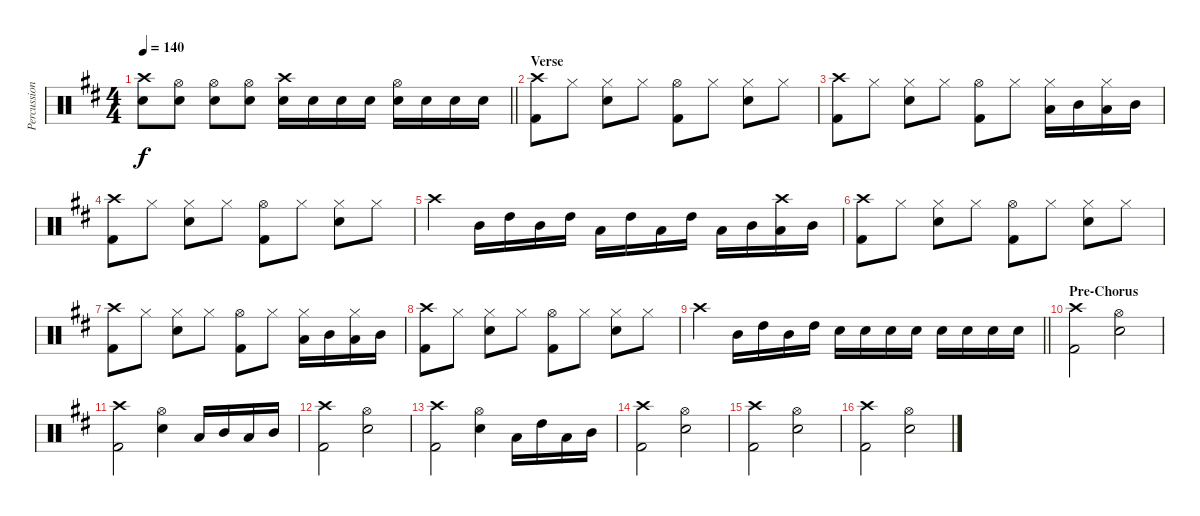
\track ("Percussion" "Percussion") {instrument percussion}
\staff {score}
\articulation defaults
\ts (4 4)
\tempo 140
\clef neutral
\barLineRight lightlight
\ks d
("Crash high (hit)" "Snare (hit) 2").8{dy f} ("Hi-Hat (open)" "Snare (hit) 2").8 ("Hi-Hat (open)" "Snare (hit) 2").8 ("Hi-Hat (open)" "Snare (hit) 2").8 ("Crash high (hit)" "Snare (hit) 2").16 "Snare (hit) 2".16 "Snare (hit) 2".16 "Snare (hit) 2".16 ("Hi-Hat (open)" "Snare (hit) 2").16 "Snare (hit) 2".16 "Snare (hit) 2".16 "Snare (hit) 2".16 |
\section ("" "Verse")
\ks bminor
("Crash high (hit)" "Kick (hit) 2").8 "Hi-Hat (closed)".8 ("Hi-Hat (closed)" "Snare (hit) 2").8 "Hi-Hat (closed)".8 ("Hi-Hat (open)" "Kick (hit) 2").8 "Hi-Hat (closed)".8 ("Hi-Hat (closed)" "Snare (hit) 2").8 "Hi-Hat (closed)".8 |
("Crash high (hit)" "Kick (hit) 2").8 "Hi-Hat (closed)".8 ("Hi-Hat (closed)" "Snare (hit) 2").8 "Hi-Hat (closed)".8 ("Hi-Hat (open)" "Kick (hit) 2").8 "Hi-Hat (closed)".8 ("Hi-Hat (closed)" "Low Tom (hit)").16 "Mid Tom (hit)".16 ("Hi-Hat (closed)" "Low Tom (hit)").16 "Mid Tom (hit)".16 |
\ks d
("Crash high (hit)" "Kick (hit) 2").8 "Hi-Hat (closed)".8 ("Hi-Hat (closed)" "Snare (hit) 2").8 "Hi-Hat (closed)".8 ("Hi-Hat (open)" "Kick (hit) 2").8 "Hi-Hat (closed)".8 ("Hi-Hat (closed)" "Snare (hit) 2").8 "Hi-Hat (closed)".8 |
"Crash high (hit)".4 "Mid Tom (hit)".16 "High Tom (hit)".16 "Mid Tom (hit)".16 "High Tom (hit)".16 "Low Tom (hit)".16 "High Tom (hit)".16 "Low Tom (hit)".16 "High Tom (hit)".16 "Low Tom (hit)".16 "Mid Tom (hit)".16 ("Crash high (hit)" "Low Tom (hit)").16 "Mid Tom (hit)".16 |
\ks bminor
("Crash high (hit)" "Kick (hit) 2").8 "Hi-Hat (closed)".8 ("Hi-Hat (closed)" "Snare (hit) 2").8 "Hi-Hat (closed)".8 ("Hi-Hat (open)" "Kick (hit) 2").8 "Hi-Hat (closed)".8 ("Hi-Hat (closed)" "Snare (hit) 2").8 "Hi-Hat (closed)".8 |
("Crash high (hit)" "Kick (hit) 2").8 "Hi-Hat (closed)".8 ("Hi-Hat (closed)" "Snare (hit) 2").8 "Hi-Hat (closed)".8 ("Hi-Hat (open)" "Kick (hit) 2").8 "Hi-Hat (closed)".8 ("Hi-Hat (closed)" "Low Tom (hit)").16 "Mid Tom (hit)".16 ("Hi-Hat (closed)" "Low Tom (hit)").16 "Mid Tom (hit)".16 |
("Crash high (hit)" "Kick (hit) 2").8 "Hi-Hat (closed)".8 ("Hi-Hat (closed)" "Snare (hit) 2").8 "Hi-Hat (closed)".8 ("Hi-Hat (open)" "Kick (hit) 2").8 "Hi-Hat (closed)".8 ("Hi-Hat (closed)" "Snare (hit) 2").8 "Hi-Hat (closed)".8 |
\barLineRight lightlight "Crash high (hit)".4 "Mid Tom (hit)".16 "High Tom (hit)".16 "Mid Tom (hit)".16 "High Tom (hit)".16 "Snare (hit) 2".16 "Snare (hit) 2".16 "Snare (hit) 2".16 "Snare (hit) 2".16 "Snare (hit) 2".16 "Snare (hit) 2".16 "Snare (hit) 2".16 "Snare (hit) 2".16
|
\section ("" "Pre-Chorus")
\ks d
("Crash high (hit)" "Kick (hit) 2").2 ("Hi-Hat (open)" "Snare (hit) 2").2 |
("Crash high (hit)" "Kick (hit) 2").2 ("Hi-Hat (open)" "Snare (hit) 2").4 "Low Tom (hit)".16 "Mid Tom (hit)".16 "Low Tom (hit)".16 "Mid Tom (hit)".16 |
("Crash high (hit)" "Kick (hit) 2").2 ("Hi-Hat (open)" "Snare (hit) 2").2 |
("Crash high (hit)" "Kick (hit) 2").2 ("Hi-Hat (open)" "Snare (hit) 2").4 "Low Tom (hit)".16 "High Tom (hit)".16 "Low Tom (hit)".16 "Mid Tom (hit)".16 |
("Crash high (hit)" "Kick (hit) 2").2 ("Hi-Hat (open)" "Snare (hit) 2").2 |
("Crash high (hit)" "Kick (hit) 2").2 ("Hi-Hat (open)" "Snare (hit) 2").2 |
("Crash high (hit)" "Kick (hit) 2").2 ("Hi-Hat (open)" "Snare (hit) 2").2
